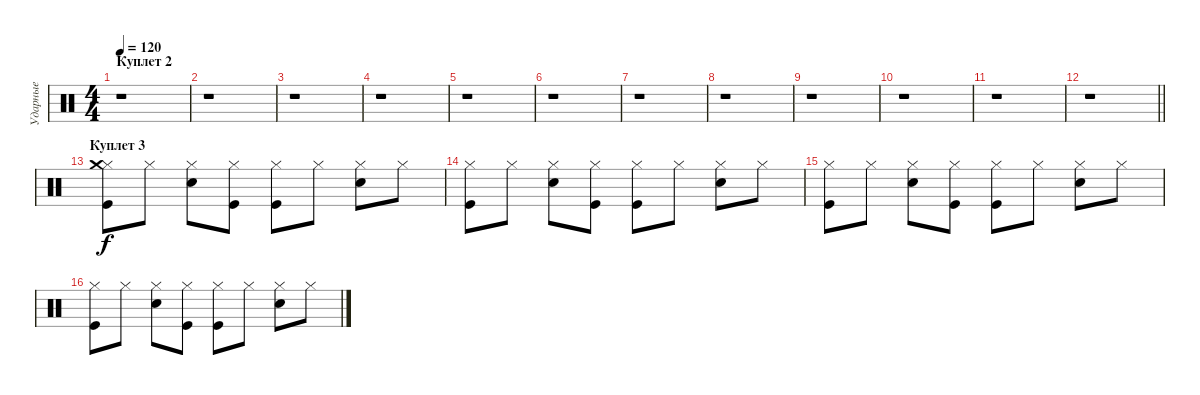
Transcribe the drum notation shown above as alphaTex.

\track ("Ударные" "Ударные") {instrument percussion}
\staff {score}
\articulation defaults
\ts (4 4)
\section ("" "Куплет 2")
\tempo 120
\clef neutral
\ks c
r.1{dy f} |
r.1 |
r.1 |
r.1 |
r.1 |
r.1 |
r.1 |
r.1 |
r.1 |
r.1 |
r.1 |
\barLineRight lightlight
r.1 |
\section ("" "Куплет 3")
("Kick (hit)" "Hi-Hat (closed)" "Crash medium (hit)").8 "Hi-Hat (closed)".8 ("Snare (hit) 2" "Hi-Hat (closed)").8 ("Kick (hit)" "Hi-Hat (closed)").8 ("Hi-Hat (closed)" "Kick (hit)").8 "Hi-Hat (closed)".8 ("Snare (hit) 2" "Hi-Hat (closed)").8 "Hi-Hat (closed)".8 |
("Kick (hit)" "Hi-Hat (closed)").8 "Hi-Hat (closed)".8 ("Snare (hit) 2" "Hi-Hat (closed)").8 ("Kick (hit)" "Hi-Hat (closed)").8 ("Hi-Hat (closed)" "Kick (hit)").8 "Hi-Hat (closed)".8 ("Snare (hit) 2" "Hi-Hat (closed)").8 "Hi-Hat (closed)".8 |
("Kick (hit)" "Hi-Hat (closed)").8 "Hi-Hat (closed)".8 ("Snare (hit) 2" "Hi-Hat (closed)").8 ("Kick (hit)" "Hi-Hat (closed)").8 ("Hi-Hat (closed)" "Kick (hit)").8 "Hi-Hat (closed)".8 ("Snare (hit) 2" "Hi-Hat (closed)").8 "Hi-Hat (closed)".8 |
("Kick (hit)" "Hi-Hat (closed)").8 "Hi-Hat (closed)".8 ("Snare (hit) 2" "Hi-Hat (closed)").8 ("Kick (hit)" "Hi-Hat (closed)").8 ("Hi-Hat (closed)" "Kick (hit)").8 "Hi-Hat (closed)".8 ("Snare (hit) 2" "Hi-Hat (closed)").8 "Hi-Hat (closed)".8
